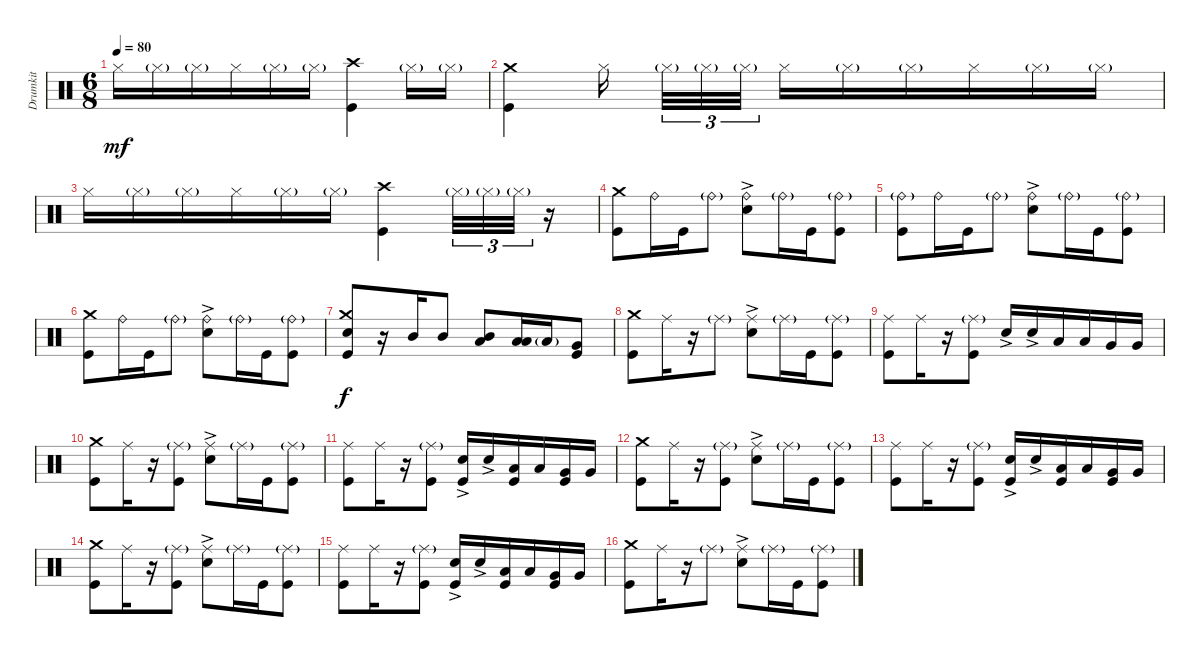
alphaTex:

\track ("Drumkit" "Drumkit") {instrument percussion}
\staff {score}
\articulation defaults
\ts (6 8)
\tempo 80
\clef neutral
\ks c "Hi-Hat (closed)".16{dy mf} "Hi-Hat (closed)"{g}.16 "Hi-Hat (closed)"{g}.16 "Hi-Hat (closed)".16 "Hi-Hat (closed)"{g}.16 "Hi-Hat (closed)"{g}.16
("Kick (hit)" "Crash high (hit)").4 "Hi-Hat (closed)"{g}.16 "Hi-Hat (closed)"{g}.16 |
("Kick (hit)" "Crash medium (hit)").4 "Hi-Hat (closed)".16 "Hi-Hat (closed)"{g}.32{tu (3 2)} "Hi-Hat (closed)"{g}.32{tu (3 2)} "Hi-Hat (closed)"{g}.32{tu (3 2)} "Hi-Hat (closed)".16 "Hi-Hat (closed)"{g}.16 "Hi-Hat (closed)"{g}.16 "Hi-Hat (closed)".16 "Hi-Hat (closed)"{g}.16 "Hi-Hat (closed)"{g}.16 |
"Hi-Hat (closed)".16 "Hi-Hat (closed)"{g}.16 "Hi-Hat (closed)"{g}.16 "Hi-Hat (closed)".16 "Hi-Hat (closed)"{g}.16 "Hi-Hat (closed)"{g}.16 ("Kick (hit)" "Crash high (hit)").4 "Hi-Hat (closed)"{g}.32{tu (3 2)} "Hi-Hat (closed)"{g}.32{tu (3 2)} "Hi-Hat (closed)"{g}.32{tu (3 2)} r.16 |
("Kick (hit)" "Crash medium (hit)").8 "Ride (bell)".16 "Kick (hit)".16 "Ride (bell)"{g}.8 ("Snare (hit) 2"{ac} "Ride (bell)").8 "Ride (bell)"{g}.16 "Kick (hit)".16 ("Kick (hit)" "Ride (bell)"{g}).8 |
("Kick (hit)" "Ride (bell)"{g}).8 "Ride (bell)".16 "Kick (hit)".16 "Ride (bell)"{g}.8 ("Snare (hit) 2"{ac} "Ride (bell)").8 "Ride (bell)"{g}.16 "Kick (hit)".16 ("Kick (hit)" "Ride (bell)"{g}).8 |
("Kick (hit)" "Crash medium (hit)").8 "Ride (bell)".16 "Kick (hit)".16 "Ride (bell)"{g}.8 ("Snare (hit) 2"{ac} "Ride (bell)").8 "Ride (bell)"{g}.16 "Kick (hit)".16 ("Kick (hit)" "Ride (bell)"{g}).8 |
("Kick (hit)" "Crash medium (hit)" "Snare (hit) 2").8{dy f} r.16 "Mid Tom (hit)".16 "Mid Tom (hit)".8 ("Mid Tom (hit)" "Low Tom (hit)").8 ("Low Tom (hit)" "Low Floor Tom (hit)").16 "Low Tom (hit)"{g}.16 ("Very Low Tom (hit)" "Kick (hit)").8 |
("Kick (hit)" "Crash medium (hit)").8 "Ride (middle)".16 r.16 "Ride (middle)"{g}.8 ("Snare (hit) 2"{ac} "Ride (middle)").8 "Ride (middle)"{g}.16 "Kick (hit)".16 ("Kick (hit)" "Ride (middle)"{g}).8 |
("Kick (hit)" "Ride (middle)").8 "Ride (middle)".16 r.16 ("Ride (middle)"{g} "Kick (hit)").8 "Snare (hit) 2"{ac}.16 "Snare (hit) 2"{ac}.16 "Low Tom (hit)".16 "Low Tom (hit)".16 "Very Low Tom (hit)".16 "Very Low Tom (hit)".16 |
("Kick (hit)" "Crash medium (hit)").8 "Ride (middle)".16 r.16 ("Ride (middle)"{g} "Kick (hit)").8 ("Snare (hit) 2"{ac} "Ride (middle)").8 "Ride (middle)"{g}.16 "Kick (hit)".16 ("Kick (hit)" "Ride (middle)"{g}).8 |
("Kick (hit)" "Ride (middle)").8 "Ride (middle)".16 r.16 ("Ride (middle)"{g} "Kick (hit)").8 ("Snare (hit) 2"{ac} "Kick (hit)").16 "Snare (hit) 2"{ac}.16 ("Low Tom (hit)" "Kick (hit)").16 "Low Tom (hit)".16 ("Very Low Tom (hit)" "Kick (hit)").16 "Very Low Tom (hit)".16 |
("Kick (hit)" "Crash medium (hit)").8 "Ride (middle)".16 r.16 ("Ride (middle)"{g} "Kick (hit)").8 ("Snare (hit) 2"{ac} "Ride (middle)").8 "Ride (middle)"{g}.16 "Kick (hit)".16 ("Kick (hit)" "Ride (middle)"{g}).8 |
("Kick (hit)" "Ride (middle)").8 "Ride (middle)".16 r.16 ("Ride (middle)"{g} "Kick (hit)").8 ("Snare (hit) 2"{ac} "Kick (hit)").16 "Snare (hit) 2"{ac}.16 ("Low Tom (hit)" "Kick (hit)").16 "Low Tom (hit)".16 ("Very Low Tom (hit)" "Kick (hit)").16 "Very Low Tom (hit)".16 |
("Kick (hit)" "Crash medium (hit)").8 "Ride (middle)".16 r.16 ("Ride (middle)"{g} "Kick (hit)").8 ("Snare (hit) 2"{ac} "Ride (middle)").8 "Ride (middle)"{g}.16 "Kick (hit)".16 ("Kick (hit)" "Ride (middle)"{g}).8 |
("Kick (hit)" "Ride (middle)").8 "Ride (middle)".16 r.16 ("Ride (middle)"{g} "Kick (hit)").8 ("Snare (hit) 2"{ac} "Kick (hit)").16 "Snare (hit) 2"{ac}.16 ("Low Tom (hit)" "Kick (hit)").16 "Low Tom (hit)".16 ("Very Low Tom (hit)" "Kick (hit)").16 "Very Low Tom (hit)".16 |
("Kick (hit)" "Crash medium (hit)").8 "Ride (middle)".16 r.16 "Ride (middle)"{g}.8 ("Snare (hit) 2"{ac} "Ride (middle)").8 "Ride (middle)"{g}.16 "Kick (hit)".16 ("Kick (hit)" "Ride (middle)"{g}).8
